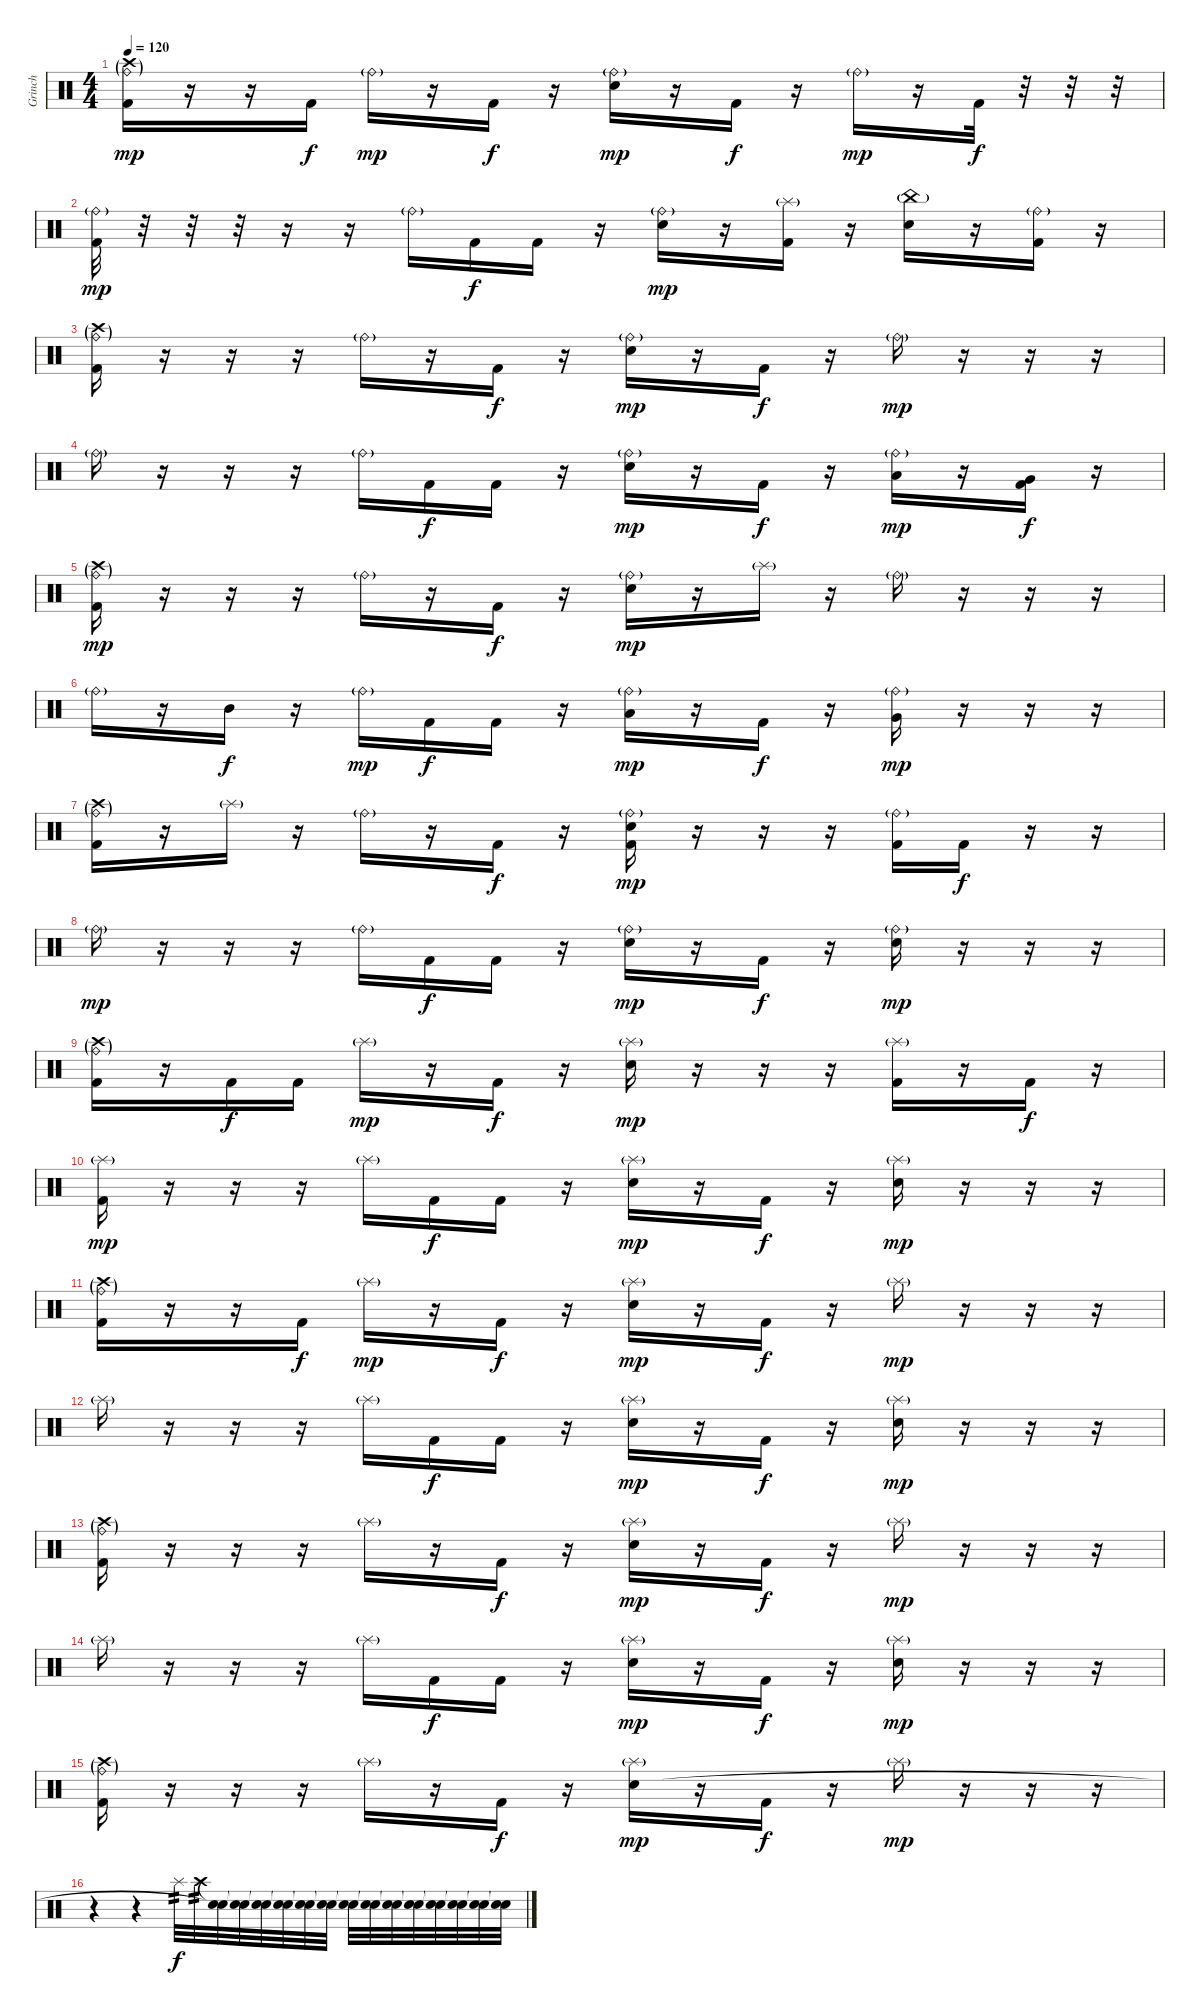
\track ("Grinch" "Grinch") {instrument percussion}
\staff {score}
\articulation defaults
\ts (4 4)
\tempo 120
\clef neutral
\ks c
("Ride (bell)"{g} "Crash high (hit)"{g} "Kick (hit) 2").16{dy mp} r.16 r.16 "Kick (hit) 2".16{dy f} "Ride (bell)"{g}.16{dy mp} r.16 "Kick (hit) 2".16{dy f} r.16 ("Ride (bell)"{g} "Snare (hit) 2").16{dy mp} r.16 "Kick (hit) 2".16{dy f} r.16 "Ride (bell)"{g}.16{dy mp} r.16 "Kick (hit) 2".32{dy f} r.32 r.32 r.32 |
("Ride (bell)"{g} "Kick (hit) 2").32{dy mp} r.32 r.32 r.32 r.16 r.16 "Ride (bell)"{g}.16 "Kick (hit) 2".16{dy f} "Kick (hit) 2".16 r.16 ("Ride (bell)"{g} "Snare (hit) 2").16{dy mp} r.16 ("Splash (hit)"{g} "Kick (hit) 2").16 r.16 ("China (hit)"{g} "Snare (hit) 2").16 r.16 ("Ride (bell)"{g} "Kick (hit) 2").16 r.16 |
("Ride (bell)"{g} "Crash high (hit)"{g} "Kick (hit) 2").16 r.16 r.16 r.16 "Ride (bell)"{g}.16 r.16 "Kick (hit) 2".16{dy f} r.16 ("Ride (bell)"{g} "Snare (hit) 2").16{dy mp} r.16 "Kick (hit) 2".16{dy f} r.16 "Ride (bell)"{g}.16{dy mp} r.16 r.16 r.16 |
"Ride (bell)"{g}.16 r.16 r.16 r.16 "Ride (bell)"{g}.16 "Kick (hit) 2".16{dy f} "Kick (hit) 2".16 r.16 ("Ride (bell)"{g} "Snare (hit) 2").16{dy mp} r.16 "Kick (hit) 2".16{dy f} r.16 ("Ride (bell)"{g} "Low Tom (hit)").16{dy mp} r.16 ("Very Low Tom (hit)" "Kick (hit) 2").16{dy f} r.16 |
("Ride (bell)"{g} "Crash high (hit)"{g} "Kick (hit) 2").16{dy mp} r.16 r.16 r.16 "Ride (bell)"{g}.16 r.16 "Kick (hit) 2".16{dy f} r.16 ("Ride (bell)"{g} "Snare (hit) 2").16{dy mp} r.16 "Splash (hit)"{g}.16 r.16 "Ride (bell)"{g}.16 r.16 r.16 r.16 |
"Ride (bell)"{g}.16 r.16 "Mid Tom (hit)".16{dy f} r.16 "Ride (bell)"{g}.16{dy mp} "Kick (hit) 2".16{dy f} "Kick (hit) 2".16 r.16 ("Ride (bell)"{g} "Low Tom (hit)").16{dy mp} r.16 "Kick (hit) 2".16{dy f} r.16 ("Ride (bell)"{g} "Very Low Tom (hit)").16{dy mp} r.16 r.16 r.16 |
("Ride (bell)"{g} "Crash high (hit)"{g} "Kick (hit) 2").16 r.16 "Splash (hit)"{g}.16 r.16 "Ride (bell)"{g}.16 r.16 "Kick (hit) 2".16{dy f} r.16 ("Ride (bell)"{g} "Snare (hit) 2" "Kick (hit) 2").16{dy mp} r.16 r.16 r.16 ("Ride (bell)"{g} "Kick (hit) 2").16 "Kick (hit) 2".16{dy f} r.16 r.16 |
"Ride (bell)"{g}.16{dy mp} r.16 r.16 r.16 "Ride (bell)"{g}.16 "Kick (hit) 2".16{dy f} "Kick (hit) 2".16 r.16 ("Ride (bell)"{g} "Snare (hit) 2").16{dy mp} r.16 "Kick (hit) 2".16{dy f} r.16 ("Ride (bell)"{g} "Snare (hit) 2").16{dy mp} r.16 r.16 r.16 |
("Ride (bell)"{g} "Crash high (hit)"{g} "Kick (hit) 2").16 r.16 "Kick (hit) 2".16{dy f} "Kick (hit) 2".16 "Splash (hit)"{g}.16{dy mp} r.16 "Kick (hit) 2".16{dy f} r.16 ("Splash (hit)"{g} "Snare (hit) 2").16{dy mp} r.16 r.16 r.16 ("Splash (hit)"{g} "Kick (hit) 2").16 r.16 "Kick (hit) 2".16{dy f} r.16 |
("Splash (hit)"{g} "Kick (hit) 2").16{dy mp} r.16 r.16 r.16 "Splash (hit)"{g}.16 "Kick (hit) 2".16{dy f} "Kick (hit) 2".16 r.16 ("Splash (hit)"{g} "Snare (hit) 2").16{dy mp} r.16 "Kick (hit) 2".16{dy f} r.16 ("Splash (hit)"{g} "Snare (hit) 2").16{dy mp} r.16 r.16 r.16 |
("Ride (bell)"{g} "Crash high (hit)"{g} "Kick (hit) 2").16 r.16 r.16 "Kick (hit) 2".16{dy f} "Splash (hit)"{g}.16{dy mp} r.16 "Kick (hit) 2".16{dy f} r.16 ("Splash (hit)"{g} "Snare (hit) 2").16{dy mp} r.16 "Kick (hit) 2".16{dy f} r.16 "Splash (hit)"{g}.16{dy mp} r.16 r.16 r.16 |
"Splash (hit)"{g}.16 r.16 r.16 r.16 "Splash (hit)"{g}.16 "Kick (hit) 2".16{dy f} "Kick (hit) 2".16 r.16 ("Splash (hit)"{g} "Snare (hit) 2").16{dy mp} r.16 "Kick (hit) 2".16{dy f} r.16 ("Splash (hit)"{g} "Snare (hit) 2").16{dy mp} r.16 r.16 r.16 |
("Ride (bell)"{g} "Crash high (hit)"{g} "Kick (hit) 2").16 r.16 r.16 r.16 "Splash (hit)"{g}.16 r.16 "Kick (hit) 2".16{dy f} r.16 ("Splash (hit)"{g} "Snare (hit) 2").16{dy mp} r.16 "Kick (hit) 2".16{dy f} r.16 "Splash (hit)"{g}.16{dy mp} r.16 r.16 r.16 |
"Splash (hit)"{g}.16 r.16 r.16 r.16 "Splash (hit)"{g}.16 "Kick (hit) 2".16{dy f} "Kick (hit) 2".16 r.16 ("Splash (hit)"{g} "Snare (hit) 2").16{dy mp} r.16 "Kick (hit) 2".16{dy f} r.16 ("Splash (hit)"{g} "Snare (hit) 2").16{dy mp} r.16 r.16 r.16 |
("Ride (bell)"{g} "Crash high (hit)"{g} "Kick (hit) 2").16 r.16 r.16 r.16 "Splash (hit)"{g}.16 r.16 "Kick (hit) 2".16{dy f} r.16 ("Splash (hit)"{g} "Snare (hit) 2").16{dy mp} r.16 "Kick (hit) 2".16{dy f} r.16 "Splash (hit)"{g}.16{dy mp} r.16 r.16 r.16 |
r.4{volume 5} r.4 "Splash (hit)".32{tp 2 dy f volume 13} "Crash high (hit)".32{tp 2} ("Snare (hit)"{t} "Snare (hit)"{t}).32 ("Snare (hit)"{t} "Snare (hit)"{t}).32 ("Snare (hit)"{t} "Snare (hit)"{t}).32 ("Snare (hit)"{t} "Snare (hit)"{t}).32 ("Snare (hit)"{t} "Snare (hit)"{t}).32 ("Snare (hit)"{t} "Snare (hit)"{t}).32 ("Snare (hit)"{t} "Snare (hit)"{t}).32 ("Snare (hit)"{t} "Snare (hit)"{t}).32 ("Snare (hit)"{t} "Snare (hit)"{t}).32 ("Snare (hit)"{t} "Snare (hit)"{t}).32 ("Snare (hit)"{t} "Snare (hit)"{t}).32 ("Snare (hit)"{t} "Snare (hit)"{t}).32 ("Snare (hit)"{t} "Snare (hit)"{t}).32 ("Snare (hit)"{t} "Snare (hit)"{t}).32
